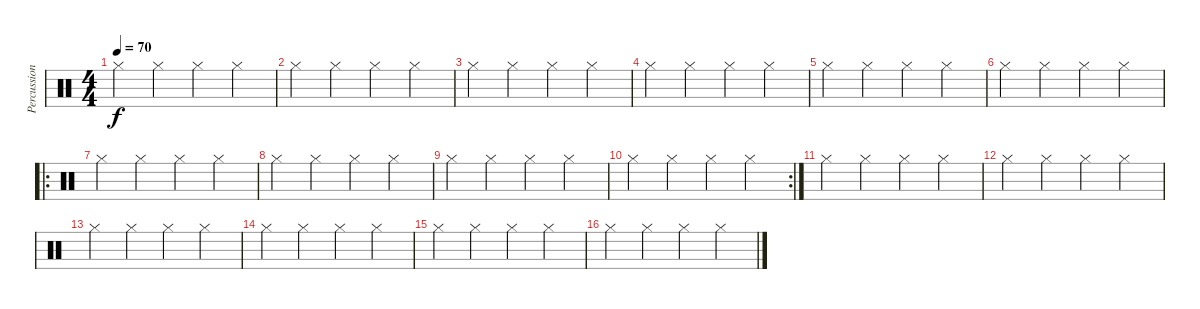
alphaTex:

\track ("Percussion" "Percussion") {instrument percussion}
\staff {score}
\articulation defaults
\ts (4 4)
\tempo 70
\clef neutral
\ks c "Hi-Hat (closed)".4{dy f} "Hi-Hat (closed)".4 "Hi-Hat (closed)".4 "Hi-Hat (closed)".4
|
"Hi-Hat (closed)".4 "Hi-Hat (closed)".4 "Hi-Hat (closed)".4 "Hi-Hat (closed)".4 |
"Hi-Hat (closed)".4 "Hi-Hat (closed)".4 "Hi-Hat (closed)".4 "Hi-Hat (closed)".4 |
"Hi-Hat (closed)".4 "Hi-Hat (closed)".4 "Hi-Hat (closed)".4 "Hi-Hat (closed)".4 |
"Hi-Hat (closed)".4 "Hi-Hat (closed)".4 "Hi-Hat (closed)".4 "Hi-Hat (closed)".4 |
"Hi-Hat (closed)".4 "Hi-Hat (closed)".4 "Hi-Hat (closed)".4 "Hi-Hat (closed)".4 |
\ro "Hi-Hat (closed)".4 "Hi-Hat (closed)".4 "Hi-Hat (closed)".4 "Hi-Hat (closed)".4
|
"Hi-Hat (closed)".4 "Hi-Hat (closed)".4 "Hi-Hat (closed)".4 "Hi-Hat (closed)".4 |
"Hi-Hat (closed)".4 "Hi-Hat (closed)".4 "Hi-Hat (closed)".4 "Hi-Hat (closed)".4 |
\rc 2 "Hi-Hat (closed)".4 "Hi-Hat (closed)".4 "Hi-Hat (closed)".4 "Hi-Hat (closed)".4
|
"Hi-Hat (closed)".4 "Hi-Hat (closed)".4 "Hi-Hat (closed)".4 "Hi-Hat (closed)".4 |
"Hi-Hat (closed)".4 "Hi-Hat (closed)".4 "Hi-Hat (closed)".4 "Hi-Hat (closed)".4 |
"Hi-Hat (closed)".4 "Hi-Hat (closed)".4 "Hi-Hat (closed)".4 "Hi-Hat (closed)".4 |
"Hi-Hat (closed)".4 "Hi-Hat (closed)".4 "Hi-Hat (closed)".4 "Hi-Hat (closed)".4 |
"Hi-Hat (closed)".4 "Hi-Hat (closed)".4 "Hi-Hat (closed)".4 "Hi-Hat (closed)".4 |
"Hi-Hat (closed)".4 "Hi-Hat (closed)".4 "Hi-Hat (closed)".4 "Hi-Hat (closed)".4
